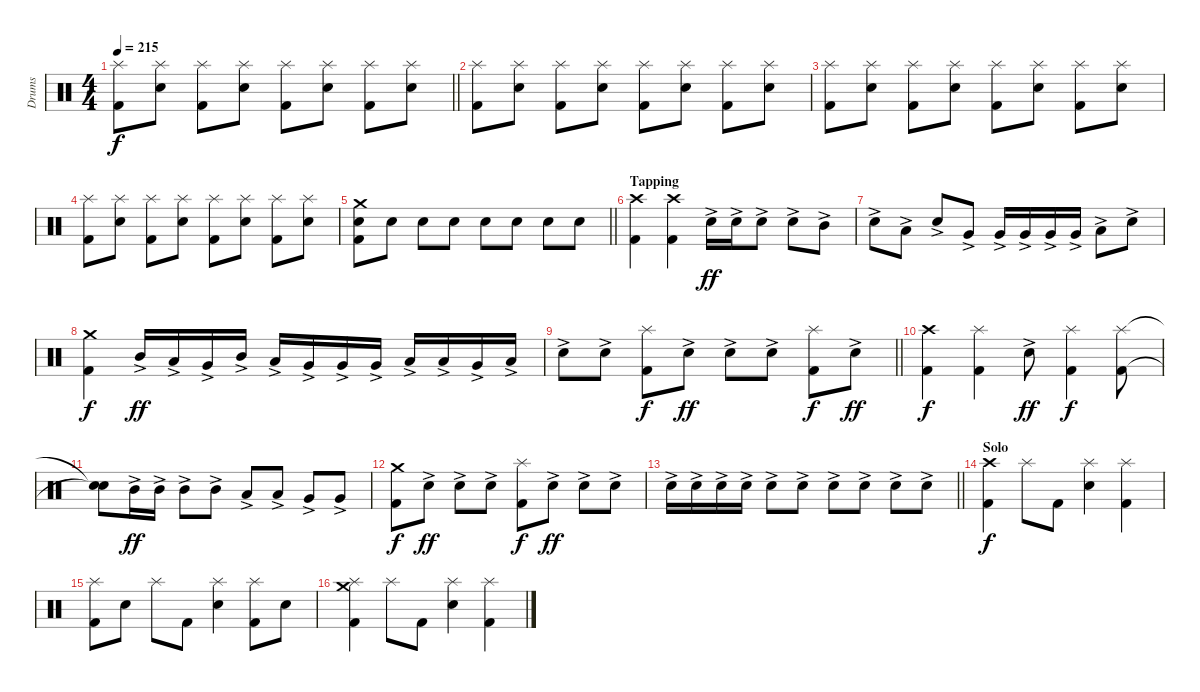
\track ("Drums" "Drums") {instrument percussion}
\staff {score}
\articulation defaults
\ts (4 4)
\tempo 215
\clef neutral
\barLineRight lightlight
\ks c
("Kick (hit) 2" "Splash (hit)").8{dy f} ("Snare (hit) 2" "Splash (hit)").8 ("Kick (hit) 2" "Splash (hit)").8 ("Snare (hit) 2" "Splash (hit)").8 ("Kick (hit) 2" "Splash (hit)").8 ("Snare (hit) 2" "Splash (hit)").8 ("Kick (hit) 2" "Splash (hit)").8 ("Snare (hit) 2" "Splash (hit)").8 |
\section ("" "")
("Kick (hit) 2" "Splash (hit)").8 ("Snare (hit) 2" "Splash (hit)").8 ("Kick (hit) 2" "Splash (hit)").8 ("Snare (hit) 2" "Splash (hit)").8 ("Kick (hit) 2" "Splash (hit)").8 ("Snare (hit) 2" "Splash (hit)").8 ("Kick (hit) 2" "Splash (hit)").8 ("Snare (hit) 2" "Splash (hit)").8 |
("Kick (hit) 2" "Splash (hit)").8 ("Snare (hit) 2" "Splash (hit)").8 ("Kick (hit) 2" "Splash (hit)").8 ("Snare (hit) 2" "Splash (hit)").8 ("Kick (hit) 2" "Splash (hit)").8 ("Snare (hit) 2" "Splash (hit)").8 ("Kick (hit) 2" "Splash (hit)").8 ("Snare (hit) 2" "Splash (hit)").8 |
("Kick (hit) 2" "Splash (hit)").8 ("Snare (hit) 2" "Splash (hit)").8 ("Kick (hit) 2" "Splash (hit)").8 ("Snare (hit) 2" "Splash (hit)").8 ("Kick (hit) 2" "Splash (hit)").8 ("Snare (hit) 2" "Splash (hit)").8 ("Kick (hit) 2" "Splash (hit)").8 ("Snare (hit) 2" "Splash (hit)").8 |
\barLineRight lightlight
("Kick (hit) 2" "Snare (hit) 2" "Crash medium (hit)").8 "Snare (hit) 2".8 "Snare (hit) 2".8 "Snare (hit) 2".8 "Snare (hit) 2".8 "Snare (hit) 2".8 "Snare (hit) 2".8 "Snare (hit) 2".8 |
\section ("" "Tapping")
("Kick (hit) 2" "Crash high (hit)").4 ("Kick (hit) 2" "Crash high (hit)").4 "Snare (hit) 2"{ac}.16{dy ff} "Snare (hit) 2"{ac}.16 "Snare (hit) 2"{ac}.8 "Snare (hit) 2"{ac}.8 "Mid Tom (hit)"{ac}.8 |
"Snare (hit) 2"{ac}.8 "Low Tom (hit)"{ac}.8 "Snare (hit) 2"{ac}.8 "Very Low Tom (hit)"{ac}.8 "Very Low Tom (hit)"{ac}.16 "Very Low Tom (hit)"{ac}.16 "Very Low Tom (hit)"{ac}.16 "Very Low Tom (hit)"{ac}.16 "Low Floor Tom (hit)"{ac}.8 "Snare (hit) 2"{ac}.8 |
("Kick (hit) 2" "Crash medium (hit)").4{dy f} "Mid Tom (hit)"{ac}.16{dy ff} "Low Tom (hit)"{ac}.16 "Very Low Tom (hit)"{ac}.16 "Mid Tom (hit)"{ac}.16 "Low Tom (hit)"{ac}.16 "Very Low Tom (hit)"{ac}.16 "Very Low Tom (hit)"{ac}.16 "Very Low Tom (hit)"{ac}.16 "Low Floor Tom (hit)"{ac}.16 "Low Floor Tom (hit)"{ac}.16 "Very Low Tom (hit)"{ac}.16 "Low Floor Tom (hit)"{ac}.16 |
\barLineRight lightlight "Snare (hit) 2"{ac}.8 "Snare (hit) 2"{ac}.8
("Kick (hit) 2" "Splash (hit)").8{dy f} "Snare (hit) 2"{ac}.8{dy ff} "Snare (hit) 2"{ac}.8 "Snare (hit) 2"{ac}.8 ("Kick (hit) 2" "Splash (hit)").8{dy f} "Snare (hit) 2"{ac}.8{dy ff} |
\section ("" "")
("Kick (hit) 2" "Crash high (hit)").4{dy f} ("Kick (hit) 2" "Splash (hit)").4 "Snare (hit) 2"{ac}.8{dy ff} ("Kick (hit) 2" "Splash (hit)").4{dy f} ("Kick (hit) 2" "Splash (hit)").8 |
("Snare (hit)"{t} "Snare (hit)"{t}).8 "Mid Tom (hit)"{ac}.16{dy ff} "Mid Tom (hit)"{ac}.16 "Mid Tom (hit)"{ac}.8 "Mid Tom (hit)"{ac}.8 "Low Tom (hit)"{ac}.8 "Low Tom (hit)"{ac}.8 "Very Low Tom (hit)"{ac}.8 "Very Low Tom (hit)"{ac}.8 |
("Kick (hit) 2" "Crash medium (hit)").8{dy f} "Snare (hit) 2"{ac}.8{dy ff} "Snare (hit) 2"{ac}.8 "Snare (hit) 2"{ac}.8 ("Kick (hit) 2" "Splash (hit)").8{dy f} "Snare (hit) 2"{ac}.8{dy ff} "Snare (hit) 2"{ac}.8 "Snare (hit) 2"{ac}.8 |
\barLineRight lightlight "Snare (hit) 2"{ac}.16 "Snare (hit) 2"{ac}.16 "Snare (hit) 2"{ac}.16 "Snare (hit) 2"{ac}.16 "Snare (hit) 2"{ac}.8 "Snare (hit) 2"{ac}.8 "Snare (hit) 2"{ac}.8 "Snare (hit) 2"{ac}.8 "Snare (hit) 2"{ac}.8 "Snare (hit) 2"{ac}.8
|
\section ("" "Solo")
("Kick (hit) 2" "Crash high (hit)").4{dy f} "Splash (hit)".8 "Kick (hit) 2".8 ("Snare (hit) 2" "Splash (hit)").4 ("Kick (hit) 2" "Splash (hit)").4 |
("Kick (hit) 2" "Splash (hit)").8 "Snare (hit) 2".8 "Splash (hit)".8 "Kick (hit) 2".8 ("Snare (hit) 2" "Splash (hit)").4 ("Kick (hit) 2" "Splash (hit)").8 "Snare (hit) 2".8 |
("Kick (hit) 2" "Splash (hit)" "Crash medium (hit)").4 "Splash (hit)".8 "Kick (hit) 2".8 ("Snare (hit) 2" "Splash (hit)").4 ("Kick (hit) 2" "Splash (hit)").4
